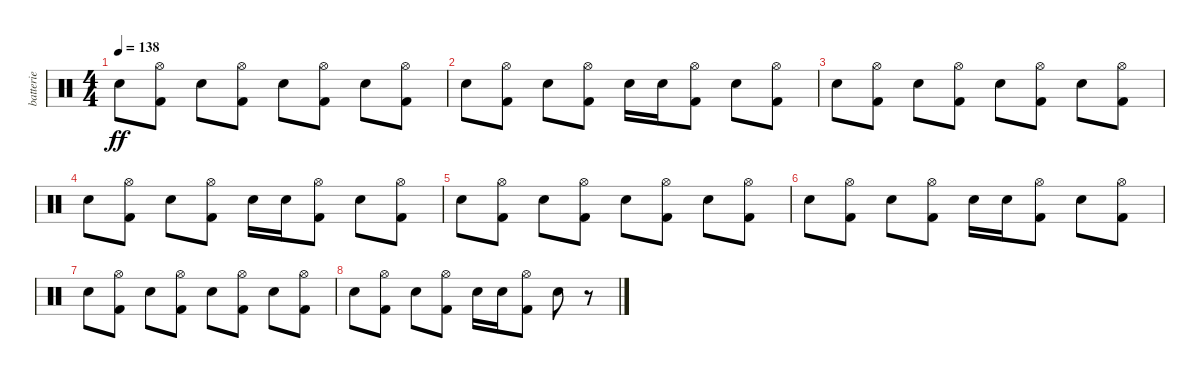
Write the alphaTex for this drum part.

\track ("batterie" "batterie") {instrument percussion}
\staff {score}
\articulation defaults
\ts (4 4)
\tempo 138
\clef neutral
\ks c "Snare (hit) 2".8{dy ff}
("Hi-Hat (open)" "Kick (hit) 2").8 "Snare (hit) 2".8 ("Hi-Hat (open)" "Kick (hit) 2").8 "Snare (hit) 2".8 ("Hi-Hat (open)" "Kick (hit) 2").8 "Snare (hit) 2".8 ("Hi-Hat (open)" "Kick (hit) 2").8 |
"Snare (hit) 2".8 ("Hi-Hat (open)" "Kick (hit) 2").8 "Snare (hit) 2".8 ("Hi-Hat (open)" "Kick (hit) 2").8 "Snare (hit) 2".16 "Snare (hit) 2".16 ("Hi-Hat (open)" "Kick (hit) 2").8 "Snare (hit) 2".8 ("Hi-Hat (open)" "Kick (hit) 2").8 |
"Snare (hit) 2".8 ("Hi-Hat (open)" "Kick (hit) 2").8 "Snare (hit) 2".8 ("Hi-Hat (open)" "Kick (hit) 2").8 "Snare (hit) 2".8 ("Hi-Hat (open)" "Kick (hit) 2").8 "Snare (hit) 2".8 ("Hi-Hat (open)" "Kick (hit) 2").8 |
"Snare (hit) 2".8 ("Hi-Hat (open)" "Kick (hit) 2").8 "Snare (hit) 2".8 ("Hi-Hat (open)" "Kick (hit) 2").8 "Snare (hit) 2".16 "Snare (hit) 2".16 ("Hi-Hat (open)" "Kick (hit) 2").8 "Snare (hit) 2".8 ("Hi-Hat (open)" "Kick (hit) 2").8 |
"Snare (hit) 2".8 ("Hi-Hat (open)" "Kick (hit) 2").8 "Snare (hit) 2".8 ("Hi-Hat (open)" "Kick (hit) 2").8 "Snare (hit) 2".8 ("Hi-Hat (open)" "Kick (hit) 2").8 "Snare (hit) 2".8 ("Hi-Hat (open)" "Kick (hit) 2").8 |
"Snare (hit) 2".8 ("Hi-Hat (open)" "Kick (hit) 2").8 "Snare (hit) 2".8 ("Hi-Hat (open)" "Kick (hit) 2").8 "Snare (hit) 2".16 "Snare (hit) 2".16 ("Hi-Hat (open)" "Kick (hit) 2").8 "Snare (hit) 2".8 ("Hi-Hat (open)" "Kick (hit) 2").8 |
"Snare (hit) 2".8 ("Hi-Hat (open)" "Kick (hit) 2").8 "Snare (hit) 2".8 ("Hi-Hat (open)" "Kick (hit) 2").8 "Snare (hit) 2".8 ("Hi-Hat (open)" "Kick (hit) 2").8 "Snare (hit) 2".8 ("Hi-Hat (open)" "Kick (hit) 2").8 |
"Snare (hit) 2".8 ("Hi-Hat (open)" "Kick (hit) 2").8 "Snare (hit) 2".8 ("Hi-Hat (open)" "Kick (hit) 2").8 "Snare (hit) 2".16 "Snare (hit) 2".16 ("Hi-Hat (open)" "Kick (hit) 2").8 "Snare (hit) 2".8 r.8
